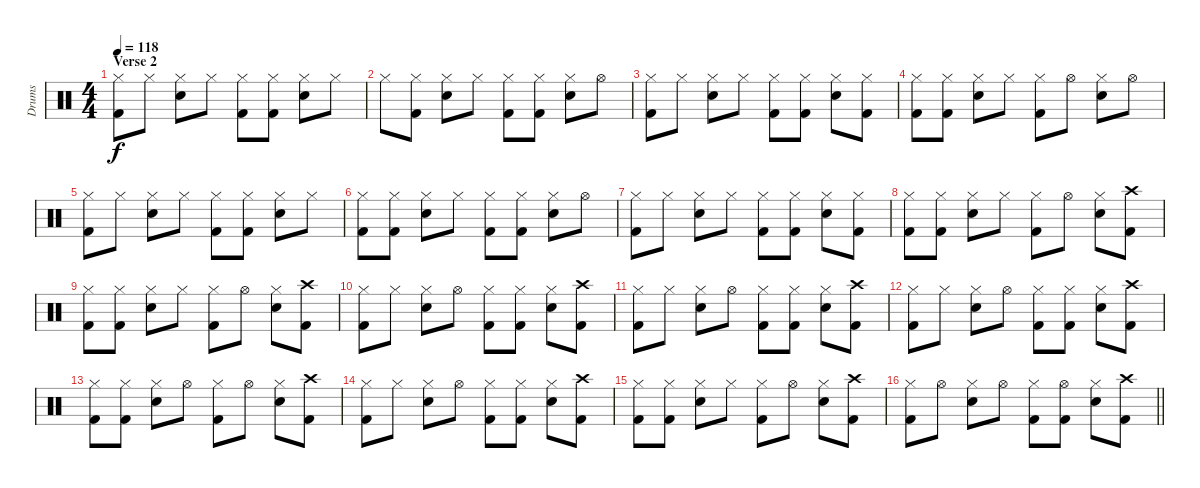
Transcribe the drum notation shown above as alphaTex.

\track ("Drums" "Drums") {instrument percussion}
\staff {score}
\articulation defaults
\ts (4 4)
\section ("" "Verse 2")
\tempo 118
\clef neutral
\ks c
("Hi-Hat (closed)" "Kick (hit) 2").8{dy f} "Hi-Hat (closed)".8 ("Hi-Hat (closed)" "Snare (hit) 2").8 "Hi-Hat (closed)".8 ("Hi-Hat (closed)" "Kick (hit) 2").8 ("Hi-Hat (closed)" "Kick (hit) 2").8 ("Hi-Hat (closed)" "Snare (hit) 2").8 "Hi-Hat (closed)".8 |
"Hi-Hat (closed)".8 ("Hi-Hat (closed)" "Kick (hit) 2").8 ("Hi-Hat (closed)" "Snare (hit) 2").8 "Hi-Hat (closed)".8 ("Hi-Hat (closed)" "Kick (hit) 2").8 ("Hi-Hat (closed)" "Kick (hit) 2").8 ("Hi-Hat (closed)" "Snare (hit) 2").8 "Hi-Hat (open)".8 |
("Hi-Hat (closed)" "Kick (hit) 2").8 "Hi-Hat (closed)".8 ("Hi-Hat (closed)" "Snare (hit) 2").8 "Hi-Hat (closed)".8 ("Hi-Hat (closed)" "Kick (hit) 2").8 ("Hi-Hat (closed)" "Kick (hit) 2").8 ("Hi-Hat (closed)" "Snare (hit) 2").8 ("Hi-Hat (closed)" "Kick (hit) 2").8 |
("Hi-Hat (closed)" "Kick (hit) 2").8 ("Hi-Hat (closed)" "Kick (hit) 2").8 ("Hi-Hat (closed)" "Snare (hit) 2").8 "Hi-Hat (closed)".8 ("Hi-Hat (closed)" "Kick (hit) 2").8 "Hi-Hat (open)".8 ("Hi-Hat (closed)" "Snare (hit) 2").8 "Hi-Hat (open)".8 |
("Hi-Hat (closed)" "Kick (hit) 2").8 "Hi-Hat (closed)".8 ("Hi-Hat (closed)" "Snare (hit) 2").8 "Hi-Hat (closed)".8 ("Hi-Hat (closed)" "Kick (hit) 2").8 ("Hi-Hat (closed)" "Kick (hit) 2").8 ("Hi-Hat (closed)" "Snare (hit) 2").8 "Hi-Hat (closed)".8 |
("Hi-Hat (closed)" "Kick (hit) 2").8 ("Hi-Hat (closed)" "Kick (hit) 2").8 ("Hi-Hat (closed)" "Snare (hit) 2").8 "Hi-Hat (closed)".8 ("Hi-Hat (closed)" "Kick (hit) 2").8 ("Hi-Hat (closed)" "Kick (hit) 2").8 ("Hi-Hat (closed)" "Snare (hit) 2").8 "Hi-Hat (open)".8 |
("Hi-Hat (closed)" "Kick (hit) 2").8 "Hi-Hat (closed)".8 ("Hi-Hat (closed)" "Snare (hit) 2").8 "Hi-Hat (closed)".8 ("Hi-Hat (closed)" "Kick (hit) 2").8 ("Hi-Hat (closed)" "Kick (hit) 2").8 ("Hi-Hat (closed)" "Snare (hit) 2").8 ("Hi-Hat (closed)" "Kick (hit) 2").8 |
("Hi-Hat (closed)" "Kick (hit) 2").8 ("Hi-Hat (closed)" "Kick (hit) 2").8 ("Hi-Hat (closed)" "Snare (hit) 2").8 "Hi-Hat (closed)".8 ("Hi-Hat (closed)" "Kick (hit) 2").8 "Hi-Hat (open)".8 ("Hi-Hat (closed)" "Snare (hit) 2").8 ("Crash high (hit)" "Kick (hit) 2").8 |
("Hi-Hat (closed)" "Kick (hit) 2").8 ("Hi-Hat (closed)" "Kick (hit) 2").8 ("Hi-Hat (closed)" "Snare (hit) 2").8 "Hi-Hat (closed)".8 ("Hi-Hat (closed)" "Kick (hit) 2").8 "Hi-Hat (open)".8 ("Hi-Hat (closed)" "Snare (hit) 2").8 ("Crash high (hit)" "Kick (hit) 2").8 |
("Hi-Hat (closed)" "Kick (hit) 2").8 "Hi-Hat (closed)".8 ("Hi-Hat (closed)" "Snare (hit) 2").8 "Hi-Hat (open)".8 ("Hi-Hat (closed)" "Kick (hit) 2").8 ("Hi-Hat (closed)" "Kick (hit) 2").8 ("Hi-Hat (closed)" "Snare (hit) 2").8 ("Crash high (hit)" "Kick (hit) 2").8 |
("Hi-Hat (closed)" "Kick (hit) 2").8 "Hi-Hat (closed)".8 ("Hi-Hat (closed)" "Snare (hit) 2").8 "Hi-Hat (open)".8 ("Hi-Hat (closed)" "Kick (hit) 2").8 ("Hi-Hat (closed)" "Kick (hit) 2").8 ("Hi-Hat (closed)" "Snare (hit) 2").8 ("Crash high (hit)" "Kick (hit) 2").8 |
("Hi-Hat (closed)" "Kick (hit) 2").8 "Hi-Hat (closed)".8 ("Hi-Hat (closed)" "Snare (hit) 2").8 "Hi-Hat (open)".8 ("Hi-Hat (closed)" "Kick (hit) 2").8 ("Hi-Hat (closed)" "Kick (hit) 2").8 ("Hi-Hat (closed)" "Snare (hit) 2").8 ("Crash high (hit)" "Kick (hit) 2").8 |
("Hi-Hat (closed)" "Kick (hit) 2").8 ("Hi-Hat (closed)" "Kick (hit) 2").8 ("Hi-Hat (closed)" "Snare (hit) 2").8 "Hi-Hat (open)".8 ("Hi-Hat (closed)" "Kick (hit) 2").8 "Hi-Hat (open)".8 ("Hi-Hat (closed)" "Snare (hit) 2").8 ("Crash high (hit)" "Kick (hit) 2").8 |
("Hi-Hat (closed)" "Kick (hit) 2").8 "Hi-Hat (closed)".8 ("Hi-Hat (closed)" "Snare (hit) 2").8 "Hi-Hat (open)".8 ("Hi-Hat (closed)" "Kick (hit) 2").8 ("Hi-Hat (closed)" "Kick (hit) 2").8 ("Hi-Hat (closed)" "Snare (hit) 2").8 ("Crash high (hit)" "Kick (hit) 2").8 |
("Hi-Hat (closed)" "Kick (hit) 2").8 ("Hi-Hat (closed)" "Kick (hit) 2").8 ("Hi-Hat (closed)" "Snare (hit) 2").8 "Hi-Hat (closed)".8 ("Hi-Hat (closed)" "Kick (hit) 2").8 "Hi-Hat (open)".8 ("Hi-Hat (closed)" "Snare (hit) 2").8 ("Crash high (hit)" "Kick (hit) 2").8 |
\barLineRight lightlight
("Hi-Hat (closed)" "Kick (hit) 2").8 "Hi-Hat (open)".8 ("Hi-Hat (closed)" "Snare (hit) 2").8 "Hi-Hat (open)".8 ("Hi-Hat (closed)" "Kick (hit) 2").8 ("Hi-Hat (open)" "Kick (hit) 2").8 ("Hi-Hat (closed)" "Snare (hit) 2").8 ("Crash high (hit)" "Kick (hit) 2").8
